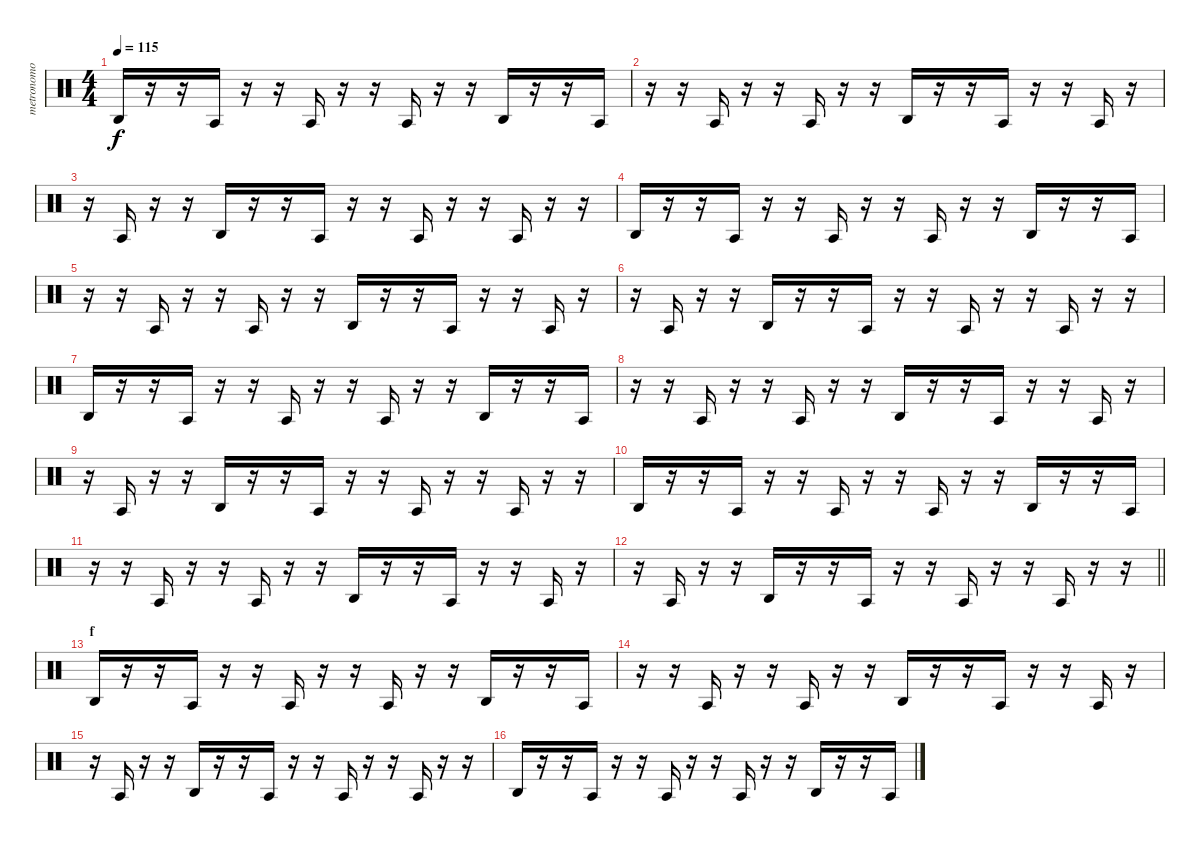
\track ("metronomo" "metronomo") {instrument percussion}
\staff {score}
\articulation defaults
\ts (4 4)
\tempo 115
\clef neutral
\ks c "Agogo high (hit)".16{dy f}
r.16 r.16 "Agogo tow (hit)".16 r.16 r.16 "Agogo tow (hit)".16 r.16 r.16 "Agogo tow (hit)".16 r.16 r.16 "Agogo high (hit)".16 r.16 r.16 "Agogo tow (hit)".16 |
r.16 r.16 "Agogo tow (hit)".16 r.16 r.16 "Agogo tow (hit)".16 r.16 r.16 "Agogo high (hit)".16 r.16 r.16 "Agogo tow (hit)".16 r.16 r.16 "Agogo tow (hit)".16 r.16 |
r.16 "Agogo tow (hit)".16 r.16 r.16 "Agogo high (hit)".16 r.16 r.16 "Agogo tow (hit)".16 r.16 r.16 "Agogo tow (hit)".16 r.16 r.16 "Agogo tow (hit)".16 r.16 r.16 |
"Agogo high (hit)".16 r.16 r.16 "Agogo tow (hit)".16 r.16 r.16 "Agogo tow (hit)".16 r.16 r.16 "Agogo tow (hit)".16 r.16 r.16 "Agogo high (hit)".16 r.16 r.16 "Agogo tow (hit)".16 |
r.16 r.16 "Agogo tow (hit)".16 r.16 r.16 "Agogo tow (hit)".16 r.16 r.16 "Agogo high (hit)".16 r.16 r.16 "Agogo tow (hit)".16 r.16 r.16 "Agogo tow (hit)".16 r.16 |
r.16 "Agogo tow (hit)".16 r.16 r.16 "Agogo high (hit)".16 r.16 r.16 "Agogo tow (hit)".16 r.16 r.16 "Agogo tow (hit)".16 r.16 r.16 "Agogo tow (hit)".16 r.16 r.16 |
"Agogo high (hit)".16 r.16 r.16 "Agogo tow (hit)".16 r.16 r.16 "Agogo tow (hit)".16 r.16 r.16 "Agogo tow (hit)".16 r.16 r.16 "Agogo high (hit)".16 r.16 r.16 "Agogo tow (hit)".16 |
r.16 r.16 "Agogo tow (hit)".16 r.16 r.16 "Agogo tow (hit)".16 r.16 r.16 "Agogo high (hit)".16 r.16 r.16 "Agogo tow (hit)".16 r.16 r.16 "Agogo tow (hit)".16 r.16 |
r.16 "Agogo tow (hit)".16 r.16 r.16 "Agogo high (hit)".16 r.16 r.16 "Agogo tow (hit)".16 r.16 r.16 "Agogo tow (hit)".16 r.16 r.16 "Agogo tow (hit)".16 r.16 r.16 |
"Agogo high (hit)".16 r.16 r.16 "Agogo tow (hit)".16 r.16 r.16 "Agogo tow (hit)".16 r.16 r.16 "Agogo tow (hit)".16 r.16 r.16 "Agogo high (hit)".16 r.16 r.16 "Agogo tow (hit)".16 |
r.16 r.16 "Agogo tow (hit)".16 r.16 r.16 "Agogo tow (hit)".16 r.16 r.16 "Agogo high (hit)".16 r.16 r.16 "Agogo tow (hit)".16 r.16 r.16 "Agogo tow (hit)".16 r.16 |
\barLineRight lightlight
r.16 "Agogo tow (hit)".16 r.16 r.16 "Agogo high (hit)".16 r.16 r.16 "Agogo tow (hit)".16 r.16 r.16 "Agogo tow (hit)".16 r.16 r.16 "Agogo tow (hit)".16 r.16 r.16 |
\section ("" "f")
"Agogo high (hit)".16 r.16 r.16 "Agogo tow (hit)".16 r.16 r.16 "Agogo tow (hit)".16 r.16 r.16 "Agogo tow (hit)".16 r.16 r.16 "Agogo high (hit)".16 r.16 r.16 "Agogo tow (hit)".16 |
r.16 r.16 "Agogo tow (hit)".16 r.16 r.16 "Agogo tow (hit)".16 r.16 r.16 "Agogo high (hit)".16 r.16 r.16 "Agogo tow (hit)".16 r.16 r.16 "Agogo tow (hit)".16 r.16 |
r.16 "Agogo tow (hit)".16 r.16 r.16 "Agogo high (hit)".16 r.16 r.16 "Agogo tow (hit)".16 r.16 r.16 "Agogo tow (hit)".16 r.16 r.16 "Agogo tow (hit)".16 r.16 r.16 |
"Agogo high (hit)".16 r.16 r.16 "Agogo tow (hit)".16 r.16 r.16 "Agogo tow (hit)".16 r.16 r.16 "Agogo tow (hit)".16 r.16 r.16 "Agogo high (hit)".16 r.16 r.16 "Agogo tow (hit)".16
